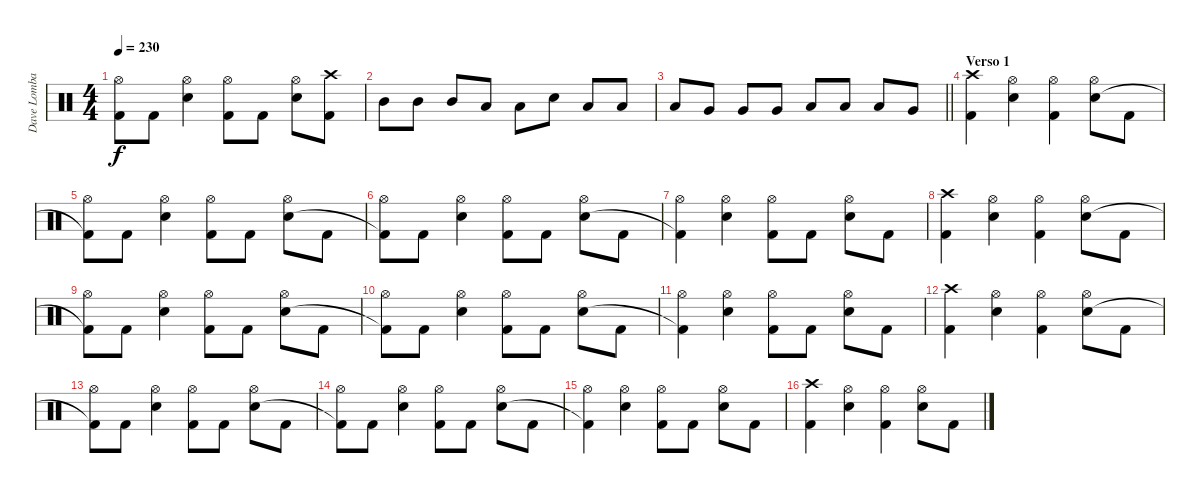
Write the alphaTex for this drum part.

\track ("Dave Lombardo" "Dave Lomba") {instrument percussion}
\staff {score}
\articulation defaults
\ts (4 4)
\tempo 230
\clef neutral
\ks c
("Hi-Hat (open)" "Kick (hit) 2"{t}).8{dy f} "Kick (hit) 2".8 ("Hi-Hat (open)" "Snare (hit) 2").4 ("Hi-Hat (open)" "Kick (hit) 2").8 "Kick (hit) 2".8 ("Hi-Hat (open)" "Snare (hit) 2").8 ("Crash high (hit)" "Kick (hit) 2").8 |
"Mid Tom (hit)".8 "Mid Tom (hit)".8 "Mid Tom (hit)".8 "Low Tom (hit)".8 "Low Tom (hit)".8 "Snare (hit) 2".8 "Low Tom (hit)".8 "Low Tom (hit)".8 |
\barLineRight lightlight "Low Tom (hit)".8 "Very Low Tom (hit)".8 "Very Low Tom (hit)".8 "Very Low Tom (hit)".8 "Low Floor Tom (hit)".8 "Low Floor Tom (hit)".8 "Low Floor Tom (hit)".8 "Very Low Tom (hit)".8
|
\section ("" "Verso 1")
("Crash high (hit)" "Kick (hit) 2").4 ("Hi-Hat (open)" "Snare (hit) 2").4 ("Hi-Hat (open)" "Kick (hit) 2").4 ("Hi-Hat (open)" "Snare (hit) 2").8 "Kick (hit) 2".8 |
("Hi-Hat (open)" "Kick (hit) 2"{t}).8 "Kick (hit) 2".8 ("Hi-Hat (open)" "Snare (hit) 2").4 ("Hi-Hat (open)" "Kick (hit) 2").8 "Kick (hit) 2".8 ("Hi-Hat (open)" "Snare (hit) 2").8 "Kick (hit) 2".8 |
("Hi-Hat (open)" "Kick (hit) 2"{t}).8 "Kick (hit) 2".8 ("Hi-Hat (open)" "Snare (hit) 2").4 ("Hi-Hat (open)" "Kick (hit) 2").8 "Kick (hit) 2".8 ("Hi-Hat (open)" "Snare (hit) 2").8 "Kick (hit) 2".8 |
("Hi-Hat (open)" "Kick (hit) 2"{t}).4 ("Hi-Hat (open)" "Snare (hit) 2").4 ("Hi-Hat (open)" "Kick (hit) 2").8 "Kick (hit) 2".8 ("Hi-Hat (open)" "Snare (hit) 2").8 "Kick (hit) 2".8 |
("Crash high (hit)" "Kick (hit) 2").4 ("Hi-Hat (open)" "Snare (hit) 2").4 ("Hi-Hat (open)" "Kick (hit) 2").4 ("Hi-Hat (open)" "Snare (hit) 2").8 "Kick (hit) 2".8 |
("Hi-Hat (open)" "Kick (hit) 2"{t}).8 "Kick (hit) 2".8 ("Hi-Hat (open)" "Snare (hit) 2").4 ("Hi-Hat (open)" "Kick (hit) 2").8 "Kick (hit) 2".8 ("Hi-Hat (open)" "Snare (hit) 2").8 "Kick (hit) 2".8 |
("Hi-Hat (open)" "Kick (hit) 2"{t}).8 "Kick (hit) 2".8 ("Hi-Hat (open)" "Snare (hit) 2").4 ("Hi-Hat (open)" "Kick (hit) 2").8 "Kick (hit) 2".8 ("Hi-Hat (open)" "Snare (hit) 2").8 "Kick (hit) 2".8 |
("Hi-Hat (open)" "Kick (hit) 2"{t}).4 ("Hi-Hat (open)" "Snare (hit) 2").4 ("Hi-Hat (open)" "Kick (hit) 2").8 "Kick (hit) 2".8 ("Hi-Hat (open)" "Snare (hit) 2").8 "Kick (hit) 2".8 |
("Crash high (hit)" "Kick (hit) 2").4 ("Hi-Hat (open)" "Snare (hit) 2").4 ("Hi-Hat (open)" "Kick (hit) 2").4 ("Hi-Hat (open)" "Snare (hit) 2").8 "Kick (hit) 2".8 |
("Hi-Hat (open)" "Kick (hit) 2"{t}).8 "Kick (hit) 2".8 ("Hi-Hat (open)" "Snare (hit) 2").4 ("Hi-Hat (open)" "Kick (hit) 2").8 "Kick (hit) 2".8 ("Hi-Hat (open)" "Snare (hit) 2").8 "Kick (hit) 2".8 |
("Hi-Hat (open)" "Kick (hit) 2"{t}).8 "Kick (hit) 2".8 ("Hi-Hat (open)" "Snare (hit) 2").4 ("Hi-Hat (open)" "Kick (hit) 2").8 "Kick (hit) 2".8 ("Hi-Hat (open)" "Snare (hit) 2").8 "Kick (hit) 2".8 |
("Hi-Hat (open)" "Kick (hit) 2"{t}).4 ("Hi-Hat (open)" "Snare (hit) 2").4 ("Hi-Hat (open)" "Kick (hit) 2").8 "Kick (hit) 2".8 ("Hi-Hat (open)" "Snare (hit) 2").8 "Kick (hit) 2".8 |
("Crash high (hit)" "Kick (hit) 2").4 ("Hi-Hat (open)" "Snare (hit) 2").4 ("Hi-Hat (open)" "Kick (hit) 2").4 ("Hi-Hat (open)" "Snare (hit) 2").8 "Kick (hit) 2".8
